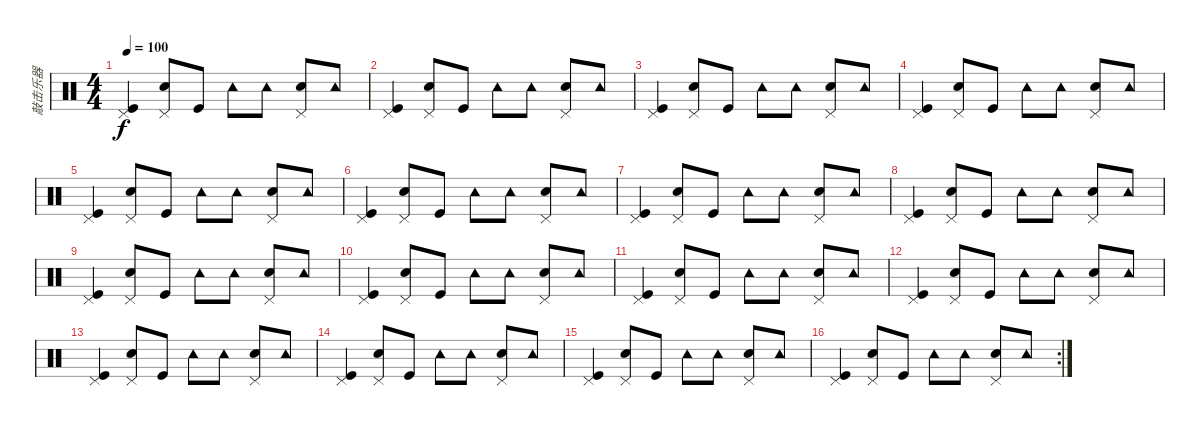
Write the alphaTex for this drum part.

\track ("敲击乐器" "敲击乐器") {instrument percussion}
\staff {score}
\articulation defaults
\ts (4 4)
\tempo 100
\clef neutral
\ks c
("Pedal Hi-Hat (hit)" "Kick (hit)").4{dy f} ("Pedal Hi-Hat (hit)" "Snare (hit) 2").8 "Kick (hit)".8 "Tambourine (hit)".8 "Tambourine (hit)".8 ("Pedal Hi-Hat (hit)" "Snare (hit) 2").8 "Tambourine (hit)".8 |
("Pedal Hi-Hat (hit)" "Kick (hit)").4 ("Pedal Hi-Hat (hit)" "Snare (hit) 2").8 "Kick (hit)".8 "Tambourine (hit)".8 "Tambourine (hit)".8 ("Pedal Hi-Hat (hit)" "Snare (hit) 2").8 "Tambourine (hit)".8 |
("Pedal Hi-Hat (hit)" "Kick (hit)").4 ("Pedal Hi-Hat (hit)" "Snare (hit) 2").8 "Kick (hit)".8 "Tambourine (hit)".8 "Tambourine (hit)".8 ("Pedal Hi-Hat (hit)" "Snare (hit) 2").8 "Tambourine (hit)".8 |
("Pedal Hi-Hat (hit)" "Kick (hit)").4 ("Pedal Hi-Hat (hit)" "Snare (hit) 2").8 "Kick (hit)".8 "Tambourine (hit)".8 "Tambourine (hit)".8 ("Pedal Hi-Hat (hit)" "Snare (hit) 2").8 "Tambourine (hit)".8 |
("Pedal Hi-Hat (hit)" "Kick (hit)").4 ("Pedal Hi-Hat (hit)" "Snare (hit) 2").8 "Kick (hit)".8 "Tambourine (hit)".8 "Tambourine (hit)".8 ("Pedal Hi-Hat (hit)" "Snare (hit) 2").8 "Tambourine (hit)".8 |
("Pedal Hi-Hat (hit)" "Kick (hit)").4 ("Pedal Hi-Hat (hit)" "Snare (hit) 2").8 "Kick (hit)".8 "Tambourine (hit)".8 "Tambourine (hit)".8 ("Pedal Hi-Hat (hit)" "Snare (hit) 2").8 "Tambourine (hit)".8 |
("Pedal Hi-Hat (hit)" "Kick (hit)").4 ("Pedal Hi-Hat (hit)" "Snare (hit) 2").8 "Kick (hit)".8 "Tambourine (hit)".8 "Tambourine (hit)".8 ("Pedal Hi-Hat (hit)" "Snare (hit) 2").8 "Tambourine (hit)".8 |
("Pedal Hi-Hat (hit)" "Kick (hit)").4 ("Pedal Hi-Hat (hit)" "Snare (hit) 2").8 "Kick (hit)".8 "Tambourine (hit)".8 "Tambourine (hit)".8 ("Pedal Hi-Hat (hit)" "Snare (hit) 2").8 "Tambourine (hit)".8 |
("Pedal Hi-Hat (hit)" "Kick (hit)").4 ("Pedal Hi-Hat (hit)" "Snare (hit) 2").8 "Kick (hit)".8 "Tambourine (hit)".8 "Tambourine (hit)".8 ("Pedal Hi-Hat (hit)" "Snare (hit) 2").8 "Tambourine (hit)".8 |
("Pedal Hi-Hat (hit)" "Kick (hit)").4 ("Pedal Hi-Hat (hit)" "Snare (hit) 2").8 "Kick (hit)".8 "Tambourine (hit)".8 "Tambourine (hit)".8 ("Pedal Hi-Hat (hit)" "Snare (hit) 2").8 "Tambourine (hit)".8 |
("Pedal Hi-Hat (hit)" "Kick (hit)").4 ("Pedal Hi-Hat (hit)" "Snare (hit) 2").8 "Kick (hit)".8 "Tambourine (hit)".8 "Tambourine (hit)".8 ("Pedal Hi-Hat (hit)" "Snare (hit) 2").8 "Tambourine (hit)".8 |
("Pedal Hi-Hat (hit)" "Kick (hit)").4 ("Pedal Hi-Hat (hit)" "Snare (hit) 2").8 "Kick (hit)".8 "Tambourine (hit)".8 "Tambourine (hit)".8 ("Pedal Hi-Hat (hit)" "Snare (hit) 2").8 "Tambourine (hit)".8 |
("Pedal Hi-Hat (hit)" "Kick (hit)").4 ("Pedal Hi-Hat (hit)" "Snare (hit) 2").8 "Kick (hit)".8 "Tambourine (hit)".8 "Tambourine (hit)".8 ("Pedal Hi-Hat (hit)" "Snare (hit) 2").8 "Tambourine (hit)".8 |
("Pedal Hi-Hat (hit)" "Kick (hit)").4 ("Pedal Hi-Hat (hit)" "Snare (hit) 2").8 "Kick (hit)".8 "Tambourine (hit)".8 "Tambourine (hit)".8 ("Pedal Hi-Hat (hit)" "Snare (hit) 2").8 "Tambourine (hit)".8 |
("Pedal Hi-Hat (hit)" "Kick (hit)").4 ("Pedal Hi-Hat (hit)" "Snare (hit) 2").8 "Kick (hit)".8 "Tambourine (hit)".8 "Tambourine (hit)".8 ("Pedal Hi-Hat (hit)" "Snare (hit) 2").8 "Tambourine (hit)".8 |
\rc 2
("Pedal Hi-Hat (hit)" "Kick (hit)").4 ("Pedal Hi-Hat (hit)" "Snare (hit) 2").8 "Kick (hit)".8 "Tambourine (hit)".8 "Tambourine (hit)".8 ("Pedal Hi-Hat (hit)" "Snare (hit) 2").8 "Tambourine (hit)".8
